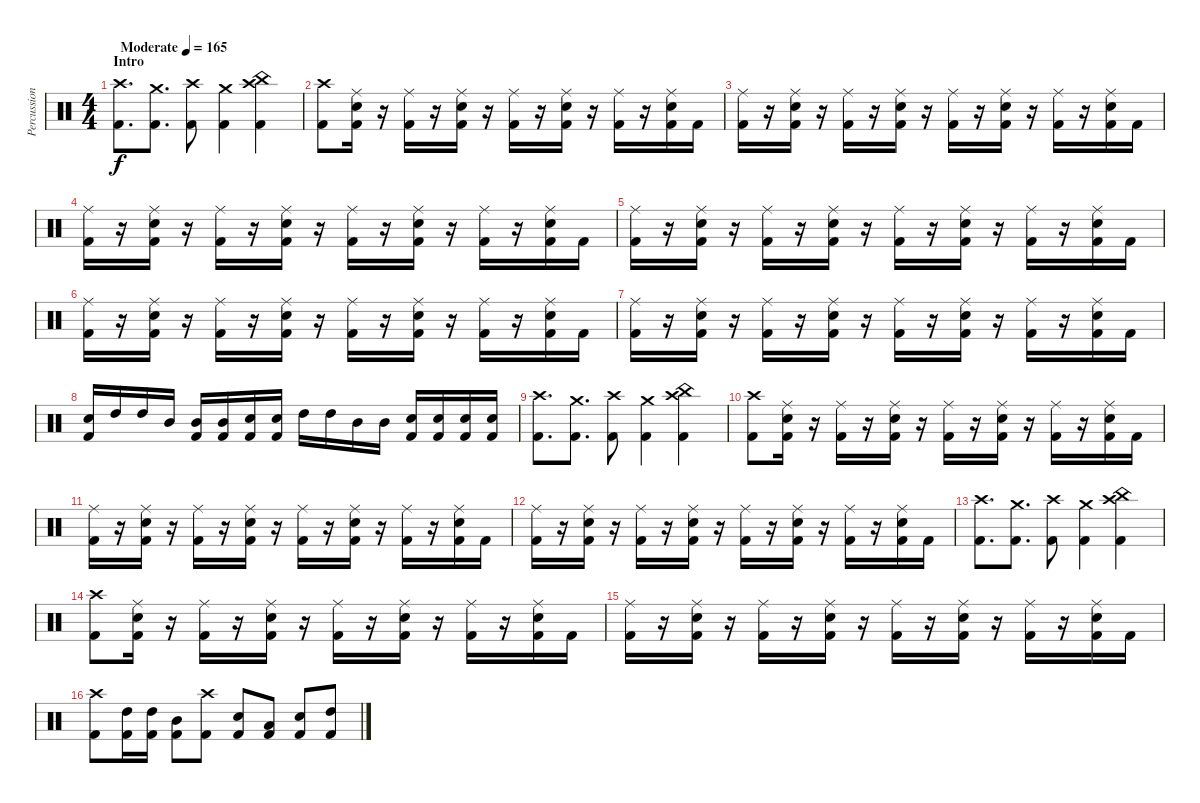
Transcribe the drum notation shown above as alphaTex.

\track ("Percussion" "Percussion") {instrument percussion}
\staff {score}
\articulation defaults
\ts (4 4)
\section ("" "Intro")
\tempo (165 "Moderate")
\clef neutral
\ks c
("Crash high (hit)" "Kick (hit) 2").8{d dy f} ("Crash medium (hit)" "Kick (hit) 2").8{d} ("Crash high (hit)" "Kick (hit) 2").8 ("Crash medium (hit)" "Kick (hit) 2").4 ("China (hit)" "Crash high (hit)" "Kick (hit) 2").4 |
("Crash high (hit)" "Kick (hit) 2").8 ("Snare (hit) 2" "Ride (middle)" "Kick (hit) 2").16 r.16 ("Ride (middle)" "Kick (hit) 2").16 r.16 ("Snare (hit) 2" "Ride (middle)" "Kick (hit) 2").16 r.16 ("Ride (middle)" "Kick (hit) 2").16 r.16 ("Snare (hit) 2" "Ride (middle)" "Kick (hit) 2").16 r.16 ("Ride (middle)" "Kick (hit) 2").16 r.16 ("Snare (hit) 2" "Ride (middle)" "Kick (hit) 2").16 "Kick (hit) 2".16 |
("Ride (middle)" "Kick (hit) 2").16 r.16 ("Snare (hit) 2" "Ride (middle)" "Kick (hit) 2").16 r.16 ("Ride (middle)" "Kick (hit) 2").16 r.16 ("Snare (hit) 2" "Ride (middle)" "Kick (hit) 2").16 r.16 ("Ride (middle)" "Kick (hit) 2").16 r.16 ("Snare (hit) 2" "Ride (middle)" "Kick (hit) 2").16 r.16 ("Ride (middle)" "Kick (hit) 2").16 r.16 ("Snare (hit) 2" "Ride (middle)" "Kick (hit) 2").16 "Kick (hit) 2".16 |
("Ride (middle)" "Kick (hit) 2").16 r.16 ("Snare (hit) 2" "Ride (middle)" "Kick (hit) 2").16 r.16 ("Ride (middle)" "Kick (hit) 2").16 r.16 ("Snare (hit) 2" "Ride (middle)" "Kick (hit) 2").16 r.16 ("Ride (middle)" "Kick (hit) 2").16 r.16 ("Snare (hit) 2" "Ride (middle)" "Kick (hit) 2").16 r.16 ("Ride (middle)" "Kick (hit) 2").16 r.16 ("Snare (hit) 2" "Ride (middle)" "Kick (hit) 2").16 "Kick (hit) 2".16 |
("Ride (middle)" "Kick (hit) 2").16 r.16 ("Snare (hit) 2" "Ride (middle)" "Kick (hit) 2").16 r.16 ("Ride (middle)" "Kick (hit) 2").16 r.16 ("Snare (hit) 2" "Ride (middle)" "Kick (hit) 2").16 r.16 ("Ride (middle)" "Kick (hit) 2").16 r.16 ("Snare (hit) 2" "Ride (middle)" "Kick (hit) 2").16 r.16 ("Ride (middle)" "Kick (hit) 2").16 r.16 ("Snare (hit) 2" "Ride (middle)" "Kick (hit) 2").16 "Kick (hit) 2".16 |
("Ride (middle)" "Kick (hit) 2").16 r.16 ("Snare (hit) 2" "Ride (middle)" "Kick (hit) 2").16 r.16 ("Ride (middle)" "Kick (hit) 2").16 r.16 ("Snare (hit) 2" "Ride (middle)" "Kick (hit) 2").16 r.16 ("Ride (middle)" "Kick (hit) 2").16 r.16 ("Snare (hit) 2" "Ride (middle)" "Kick (hit) 2").16 r.16 ("Ride (middle)" "Kick (hit) 2").16 r.16 ("Snare (hit) 2" "Ride (middle)" "Kick (hit) 2").16 "Kick (hit) 2".16 |
("Ride (middle)" "Kick (hit) 2").16 r.16 ("Snare (hit) 2" "Ride (middle)" "Kick (hit) 2").16 r.16 ("Ride (middle)" "Kick (hit) 2").16 r.16 ("Snare (hit) 2" "Ride (middle)" "Kick (hit) 2").16 r.16 ("Ride (middle)" "Kick (hit) 2").16 r.16 ("Snare (hit) 2" "Ride (middle)" "Kick (hit) 2").16 r.16 ("Ride (middle)" "Kick (hit) 2").16 r.16 ("Snare (hit) 2" "Ride (middle)" "Kick (hit) 2").16 "Kick (hit) 2".16 |
("Snare (hit) 2" "Kick (hit) 2").16 "High Tom (hit)".16 "High Tom (hit)".16 "Mid Tom (hit)".16 ("Mid Tom (hit)" "Kick (hit) 2").16 ("Mid Tom (hit)" "Kick (hit) 2").16 ("Snare (hit) 2" "Kick (hit) 2").16 ("Snare (hit) 2" "Kick (hit) 2").16 "High Tom (hit)".16 "High Tom (hit)".16 "Mid Tom (hit)".16 "Mid Tom (hit)".16 ("Snare (hit) 2" "Kick (hit) 2").16 ("Snare (hit) 2" "Kick (hit) 2").16 ("Snare (hit) 2" "Kick (hit) 2").16 ("Snare (hit) 2" "Kick (hit) 2").16 |
("Crash high (hit)" "Kick (hit) 2").8{d} ("Crash medium (hit)" "Kick (hit) 2").8{d} ("Crash high (hit)" "Kick (hit) 2").8 ("Crash medium (hit)" "Kick (hit) 2").4 ("China (hit)" "Crash high (hit)" "Kick (hit) 2").4 |
("Crash high (hit)" "Kick (hit) 2").8 ("Snare (hit) 2" "Ride (middle)" "Kick (hit) 2").16 r.16 ("Ride (middle)" "Kick (hit) 2").16 r.16 ("Snare (hit) 2" "Ride (middle)" "Kick (hit) 2").16 r.16 ("Ride (middle)" "Kick (hit) 2").16 r.16 ("Snare (hit) 2" "Ride (middle)" "Kick (hit) 2").16 r.16 ("Ride (middle)" "Kick (hit) 2").16 r.16 ("Snare (hit) 2" "Ride (middle)" "Kick (hit) 2").16 "Kick (hit) 2".16 |
("Ride (middle)" "Kick (hit) 2").16 r.16 ("Snare (hit) 2" "Ride (middle)" "Kick (hit) 2").16 r.16 ("Ride (middle)" "Kick (hit) 2").16 r.16 ("Snare (hit) 2" "Ride (middle)" "Kick (hit) 2").16 r.16 ("Ride (middle)" "Kick (hit) 2").16 r.16 ("Snare (hit) 2" "Ride (middle)" "Kick (hit) 2").16 r.16 ("Ride (middle)" "Kick (hit) 2").16 r.16 ("Snare (hit) 2" "Ride (middle)" "Kick (hit) 2").16 "Kick (hit) 2".16 |
("Ride (middle)" "Kick (hit) 2").16 r.16 ("Snare (hit) 2" "Ride (middle)" "Kick (hit) 2").16 r.16 ("Ride (middle)" "Kick (hit) 2").16 r.16 ("Snare (hit) 2" "Ride (middle)" "Kick (hit) 2").16 r.16 ("Ride (middle)" "Kick (hit) 2").16 r.16 ("Snare (hit) 2" "Ride (middle)" "Kick (hit) 2").16 r.16 ("Ride (middle)" "Kick (hit) 2").16 r.16 ("Snare (hit) 2" "Ride (middle)" "Kick (hit) 2").16 "Kick (hit) 2".16 |
("Crash high (hit)" "Kick (hit) 2").8{d} ("Crash medium (hit)" "Kick (hit) 2").8{d} ("Crash high (hit)" "Kick (hit) 2").8 ("Crash medium (hit)" "Kick (hit) 2").4 ("China (hit)" "Crash high (hit)" "Kick (hit) 2").4 |
("Crash high (hit)" "Kick (hit) 2").8 ("Snare (hit) 2" "Ride (middle)" "Kick (hit) 2").16 r.16 ("Ride (middle)" "Kick (hit) 2").16 r.16 ("Snare (hit) 2" "Ride (middle)" "Kick (hit) 2").16 r.16 ("Ride (middle)" "Kick (hit) 2").16 r.16 ("Snare (hit) 2" "Ride (middle)" "Kick (hit) 2").16 r.16 ("Ride (middle)" "Kick (hit) 2").16 r.16 ("Snare (hit) 2" "Ride (middle)" "Kick (hit) 2").16 "Kick (hit) 2".16 |
("Ride (middle)" "Kick (hit) 2").16 r.16 ("Snare (hit) 2" "Ride (middle)" "Kick (hit) 2").16 r.16 ("Ride (middle)" "Kick (hit) 2").16 r.16 ("Snare (hit) 2" "Ride (middle)" "Kick (hit) 2").16 r.16 ("Ride (middle)" "Kick (hit) 2").16 r.16 ("Snare (hit) 2" "Ride (middle)" "Kick (hit) 2").16 r.16 ("Ride (middle)" "Kick (hit) 2").16 r.16 ("Snare (hit) 2" "Ride (middle)" "Kick (hit) 2").16 "Kick (hit) 2".16 |
("Kick (hit) 2" "Crash high (hit)").8 ("Kick (hit) 2" "High Tom (hit)").16 ("Kick (hit) 2" "High Tom (hit)").16 ("Kick (hit) 2" "Mid Tom (hit)").8 ("Kick (hit) 2" "Crash high (hit)").8 ("Kick (hit) 2" "Snare (hit) 2").8 ("Kick (hit) 2" "Low Tom (hit)").8 ("Kick (hit) 2" "Snare (hit) 2").8 ("Kick (hit) 2" "High Tom (hit)").8
